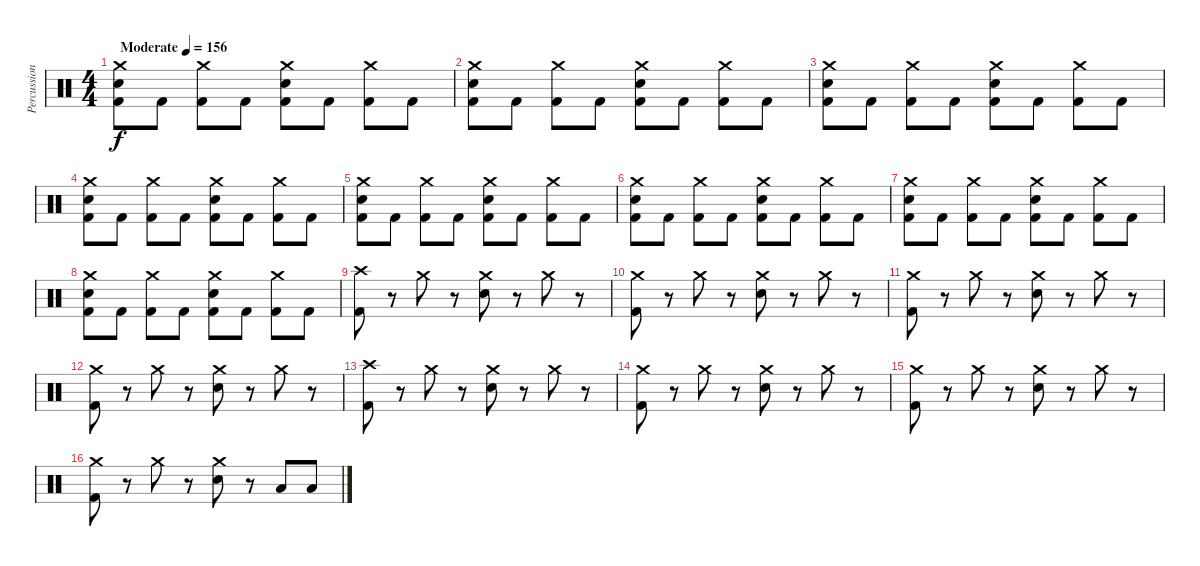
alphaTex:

\track ("Percussions" "Percussion") {instrument percussion}
\staff {score}
\articulation defaults
\ts (4 4)
\tempo (156 "Moderate")
\clef neutral
\ks c
("Crash medium (hit)" "Electric Snare (hit)" "Kick (hit) 2").8{dy f} "Kick (hit) 2".8 ("Crash medium (hit)" "Kick (hit) 2").8 "Kick (hit) 2".8 ("Crash medium (hit)" "Electric Snare (hit)" "Kick (hit) 2").8 "Kick (hit) 2".8 ("Crash medium (hit)" "Kick (hit) 2").8 "Kick (hit) 2".8 |
("Crash medium (hit)" "Electric Snare (hit)" "Kick (hit) 2").8 "Kick (hit) 2".8 ("Crash medium (hit)" "Kick (hit) 2").8 "Kick (hit) 2".8 ("Crash medium (hit)" "Electric Snare (hit)" "Kick (hit) 2").8 "Kick (hit) 2".8 ("Crash medium (hit)" "Kick (hit) 2").8 "Kick (hit) 2".8 |
("Crash medium (hit)" "Electric Snare (hit)" "Kick (hit) 2").8 "Kick (hit) 2".8 ("Crash medium (hit)" "Kick (hit) 2").8 "Kick (hit) 2".8 ("Crash medium (hit)" "Electric Snare (hit)" "Kick (hit) 2").8 "Kick (hit) 2".8 ("Crash medium (hit)" "Kick (hit) 2").8 "Kick (hit) 2".8 |
("Crash medium (hit)" "Electric Snare (hit)" "Kick (hit) 2").8 "Kick (hit) 2".8 ("Crash medium (hit)" "Kick (hit) 2").8 "Kick (hit) 2".8 ("Crash medium (hit)" "Electric Snare (hit)" "Kick (hit) 2").8 "Kick (hit) 2".8 ("Crash medium (hit)" "Kick (hit) 2").8 "Kick (hit) 2".8 |
("Crash medium (hit)" "Electric Snare (hit)" "Kick (hit) 2").8 "Kick (hit) 2".8 ("Crash medium (hit)" "Kick (hit) 2").8 "Kick (hit) 2".8 ("Crash medium (hit)" "Electric Snare (hit)" "Kick (hit) 2").8 "Kick (hit) 2".8 ("Crash medium (hit)" "Kick (hit) 2").8 "Kick (hit) 2".8 |
("Crash medium (hit)" "Electric Snare (hit)" "Kick (hit) 2").8 "Kick (hit) 2".8 ("Crash medium (hit)" "Kick (hit) 2").8 "Kick (hit) 2".8 ("Crash medium (hit)" "Electric Snare (hit)" "Kick (hit) 2").8 "Kick (hit) 2".8 ("Crash medium (hit)" "Kick (hit) 2").8 "Kick (hit) 2".8 |
("Crash medium (hit)" "Electric Snare (hit)" "Kick (hit) 2").8 "Kick (hit) 2".8 ("Crash medium (hit)" "Kick (hit) 2").8 "Kick (hit) 2".8 ("Crash medium (hit)" "Electric Snare (hit)" "Kick (hit) 2").8 "Kick (hit) 2".8 ("Crash medium (hit)" "Kick (hit) 2").8 "Kick (hit) 2".8 |
("Crash medium (hit)" "Electric Snare (hit)" "Kick (hit) 2").8 "Kick (hit) 2".8 ("Crash medium (hit)" "Kick (hit) 2").8 "Kick (hit) 2".8 ("Crash medium (hit)" "Electric Snare (hit)" "Kick (hit) 2").8 "Kick (hit) 2".8 ("Crash medium (hit)" "Kick (hit) 2").8 "Kick (hit) 2".8 |
("Crash high (hit)" "Kick (hit) 2").8 r.8 "Crash medium (hit)".8 r.8 ("Crash medium (hit)" "Electric Snare (hit)").8 r.8 "Crash medium (hit)".8 r.8 |
("Crash medium (hit)" "Kick (hit) 2").8 r.8 "Crash medium (hit)".8 r.8 ("Crash medium (hit)" "Electric Snare (hit)").8 r.8 "Crash medium (hit)".8 r.8 |
("Crash medium (hit)" "Kick (hit) 2").8 r.8 "Crash medium (hit)".8 r.8 ("Crash medium (hit)" "Electric Snare (hit)").8 r.8 "Crash medium (hit)".8 r.8 |
("Crash medium (hit)" "Kick (hit) 2").8 r.8 "Crash medium (hit)".8 r.8 ("Crash medium (hit)" "Electric Snare (hit)").8 r.8 "Crash medium (hit)".8 r.8 |
("Crash high (hit)" "Kick (hit) 2").8 r.8 "Crash medium (hit)".8 r.8 ("Crash medium (hit)" "Electric Snare (hit)").8 r.8 "Crash medium (hit)".8 r.8 |
("Crash medium (hit)" "Kick (hit) 2").8 r.8 "Crash medium (hit)".8 r.8 ("Crash medium (hit)" "Electric Snare (hit)").8 r.8 "Crash medium (hit)".8 r.8 |
("Crash medium (hit)" "Kick (hit) 2").8 r.8 "Crash medium (hit)".8 r.8 ("Crash medium (hit)" "Electric Snare (hit)").8 r.8 "Crash medium (hit)".8 r.8 |
("Crash medium (hit)" "Kick (hit) 2").8 r.8 "Crash medium (hit)".8 r.8 ("Crash medium (hit)" "Electric Snare (hit)").8 r.8 "Low Tom (hit)".8 "Low Tom (hit)".8
